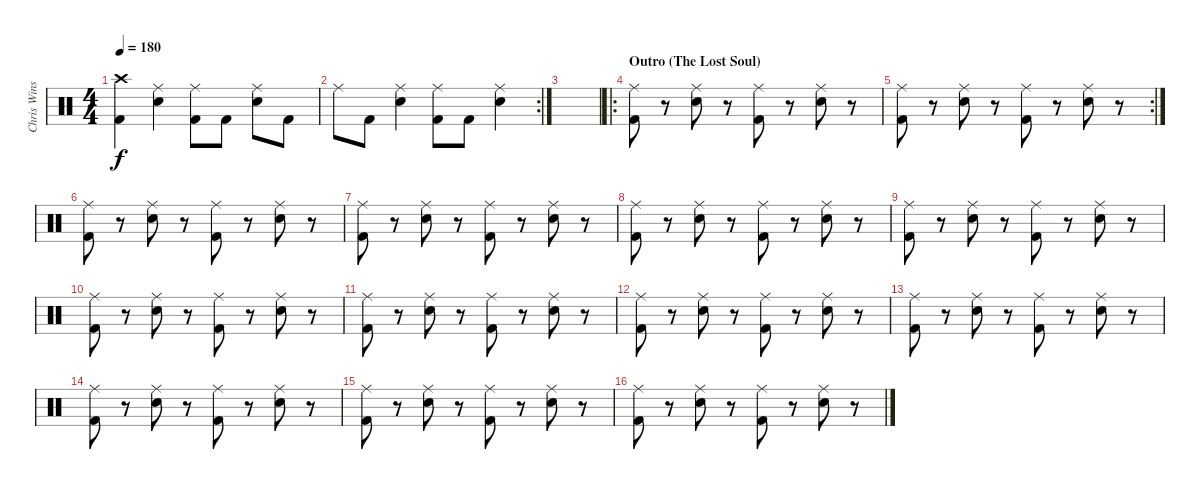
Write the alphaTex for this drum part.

\track ("Chris Winship (Drums)" "Chris Wins") {instrument percussion}
\staff {score}
\articulation defaults
\ts (4 4)
\tempo 180
\clef neutral
\ks c
("Crash high (hit)" "Kick (hit) 2").4{dy f} ("Ride (middle)" "Electric Snare (hit)").4 ("Ride (middle)" "Kick (hit) 2").8 "Kick (hit) 2".8 ("Ride (middle)" "Electric Snare (hit)").8 "Kick (hit) 2".8 |
\rc 2 "Ride (middle)".8 "Kick (hit) 2".8
("Ride (middle)" "Electric Snare (hit)").4 ("Ride (middle)" "Kick (hit) 2").8 "Kick (hit) 2".8 ("Ride (middle)" "Electric Snare (hit)").4 |
|
\ro
\section ("" "Outro (The Lost Soul)")
("Ride (middle)" "Kick (hit) 2").8 r.8 ("Ride (middle)" "Electric Snare (hit)").8 r.8 ("Ride (middle)" "Kick (hit) 2").8 r.8 ("Ride (middle)" "Electric Snare (hit)").8 r.8 |
\rc 2
("Ride (middle)" "Kick (hit) 2").8 r.8 ("Ride (middle)" "Electric Snare (hit)").8 r.8 ("Ride (middle)" "Kick (hit) 2").8 r.8 ("Ride (middle)" "Electric Snare (hit)").8 r.8 |
("Ride (middle)" "Kick (hit) 2").8 r.8 ("Ride (middle)" "Electric Snare (hit)").8 r.8 ("Ride (middle)" "Kick (hit) 2").8 r.8 ("Ride (middle)" "Electric Snare (hit)").8 r.8 |
("Ride (middle)" "Kick (hit) 2").8 r.8 ("Ride (middle)" "Electric Snare (hit)").8 r.8 ("Ride (middle)" "Kick (hit) 2").8 r.8 ("Ride (middle)" "Electric Snare (hit)").8 r.8 |
("Ride (middle)" "Kick (hit) 2").8 r.8 ("Ride (middle)" "Electric Snare (hit)").8 r.8 ("Ride (middle)" "Kick (hit) 2").8 r.8 ("Ride (middle)" "Electric Snare (hit)").8 r.8 |
("Ride (middle)" "Kick (hit) 2").8 r.8 ("Ride (middle)" "Electric Snare (hit)").8 r.8 ("Ride (middle)" "Kick (hit) 2").8 r.8 ("Ride (middle)" "Electric Snare (hit)").8 r.8 |
("Ride (middle)" "Kick (hit) 2").8 r.8 ("Ride (middle)" "Electric Snare (hit)").8 r.8 ("Ride (middle)" "Kick (hit) 2").8 r.8 ("Ride (middle)" "Electric Snare (hit)").8 r.8 |
("Ride (middle)" "Kick (hit) 2").8 r.8 ("Ride (middle)" "Electric Snare (hit)").8 r.8 ("Ride (middle)" "Kick (hit) 2").8 r.8 ("Ride (middle)" "Electric Snare (hit)").8 r.8 |
("Ride (middle)" "Kick (hit) 2").8 r.8 ("Ride (middle)" "Electric Snare (hit)").8 r.8 ("Ride (middle)" "Kick (hit) 2").8 r.8 ("Ride (middle)" "Electric Snare (hit)").8 r.8 |
("Ride (middle)" "Kick (hit) 2").8 r.8 ("Ride (middle)" "Electric Snare (hit)").8 r.8 ("Ride (middle)" "Kick (hit) 2").8 r.8 ("Ride (middle)" "Electric Snare (hit)").8 r.8 |
("Ride (middle)" "Kick (hit) 2").8 r.8 ("Ride (middle)" "Electric Snare (hit)").8 r.8 ("Ride (middle)" "Kick (hit) 2").8 r.8 ("Ride (middle)" "Electric Snare (hit)").8 r.8 |
("Ride (middle)" "Kick (hit) 2").8 r.8 ("Ride (middle)" "Electric Snare (hit)").8 r.8 ("Ride (middle)" "Kick (hit) 2").8 r.8 ("Ride (middle)" "Electric Snare (hit)").8 r.8 |
("Ride (middle)" "Kick (hit) 2").8 r.8 ("Ride (middle)" "Electric Snare (hit)").8 r.8 ("Ride (middle)" "Kick (hit) 2").8 r.8 ("Ride (middle)" "Electric Snare (hit)").8 r.8
